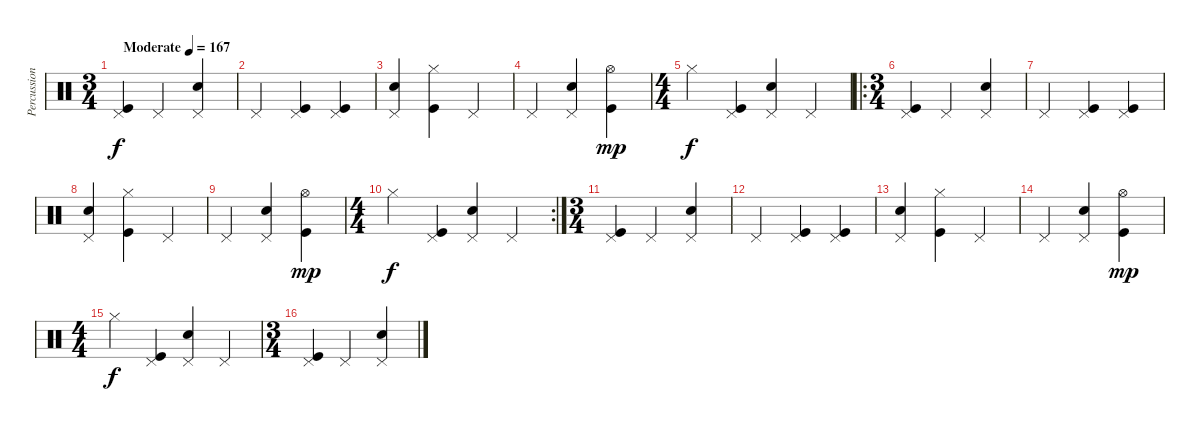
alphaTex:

\track ("Percussion" "Percussion") {instrument percussion}
\staff {score}
\articulation defaults
\ts (3 4)
\tempo (167 "Moderate")
\clef neutral
\ks c
("Pedal Hi-Hat (hit)" "Kick (hit)").4{dy f} "Pedal Hi-Hat (hit)".4 ("Pedal Hi-Hat (hit)" "Snare (hit) 2").4 |
"Pedal Hi-Hat (hit)".4 ("Pedal Hi-Hat (hit)" "Kick (hit)").4 ("Pedal Hi-Hat (hit)" "Kick (hit)").4 |
("Pedal Hi-Hat (hit)" "Snare (hit) 2").4 ("Hi-Hat (closed)" "Kick (hit)").4 "Pedal Hi-Hat (hit)".4 |
"Pedal Hi-Hat (hit)".4 ("Pedal Hi-Hat (hit)" "Snare (hit) 2").4 ("Hi-Hat (open)" "Kick (hit)").4{dy mp} |
\ts (4 4)
"Hi-Hat (closed)".4{dy f} ("Pedal Hi-Hat (hit)" "Kick (hit)").4 ("Pedal Hi-Hat (hit)" "Snare (hit) 2").4 "Pedal Hi-Hat (hit)".4 |
\ro
\ts (3 4)
("Pedal Hi-Hat (hit)" "Kick (hit)").4 "Pedal Hi-Hat (hit)".4 ("Pedal Hi-Hat (hit)" "Snare (hit) 2").4 |
"Pedal Hi-Hat (hit)".4 ("Pedal Hi-Hat (hit)" "Kick (hit)").4 ("Pedal Hi-Hat (hit)" "Kick (hit)").4 |
("Pedal Hi-Hat (hit)" "Snare (hit) 2").4 ("Hi-Hat (closed)" "Kick (hit)").4 "Pedal Hi-Hat (hit)".4 |
"Pedal Hi-Hat (hit)".4 ("Pedal Hi-Hat (hit)" "Snare (hit) 2").4 ("Hi-Hat (open)" "Kick (hit)").4{dy mp} |
\rc 2
\ts (4 4)
"Hi-Hat (closed)".4{dy f} ("Pedal Hi-Hat (hit)" "Kick (hit)").4 ("Pedal Hi-Hat (hit)" "Snare (hit) 2").4 "Pedal Hi-Hat (hit)".4 |
\ts (3 4)
("Pedal Hi-Hat (hit)" "Kick (hit)").4 "Pedal Hi-Hat (hit)".4 ("Pedal Hi-Hat (hit)" "Snare (hit) 2").4 |
"Pedal Hi-Hat (hit)".4 ("Pedal Hi-Hat (hit)" "Kick (hit)").4 ("Pedal Hi-Hat (hit)" "Kick (hit)").4 |
("Pedal Hi-Hat (hit)" "Snare (hit) 2").4 ("Hi-Hat (closed)" "Kick (hit)").4 "Pedal Hi-Hat (hit)".4 |
"Pedal Hi-Hat (hit)".4 ("Pedal Hi-Hat (hit)" "Snare (hit) 2").4 ("Hi-Hat (open)" "Kick (hit)").4{dy mp} |
\ts (4 4)
"Hi-Hat (closed)".4{dy f} ("Pedal Hi-Hat (hit)" "Kick (hit)").4 ("Pedal Hi-Hat (hit)" "Snare (hit) 2").4 "Pedal Hi-Hat (hit)".4 |
\ts (3 4)
("Pedal Hi-Hat (hit)" "Kick (hit)").4 "Pedal Hi-Hat (hit)".4 ("Pedal Hi-Hat (hit)" "Snare (hit) 2").4
